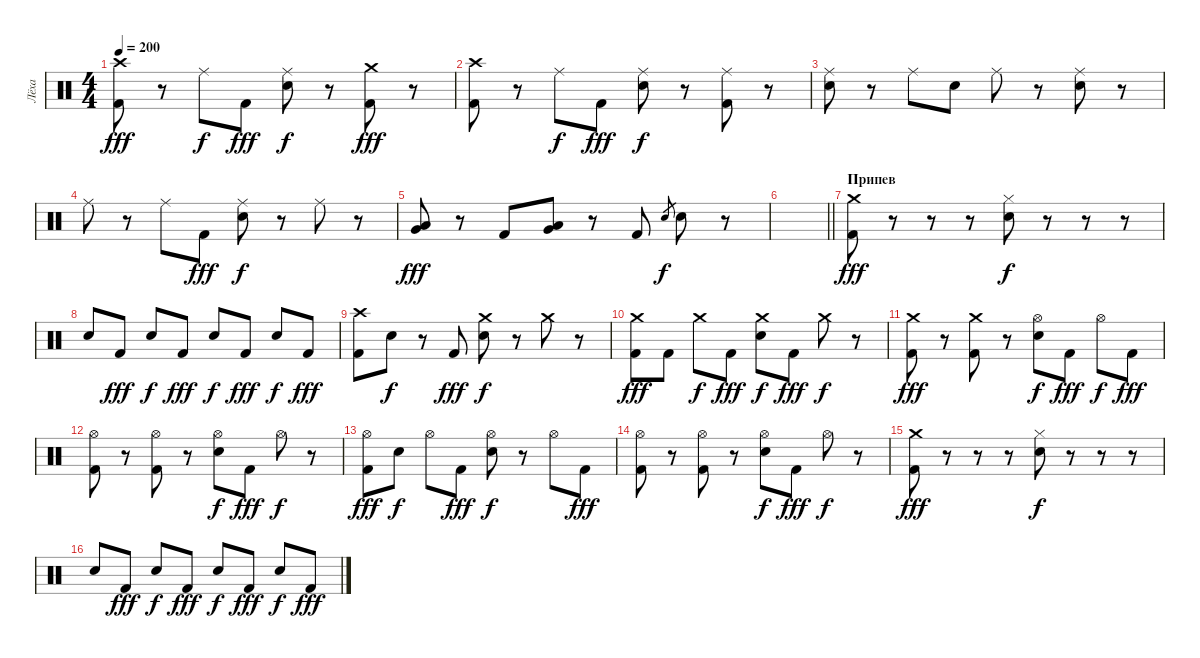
\track ("Лёха" "Лёха") {instrument percussion}
\staff {score}
\articulation defaults
\ts (4 4)
\tempo 200
\clef neutral
\ks c
("Crash high (hit)" "Kick (hit) 2").8{dy fff} r.8 "Ride (middle)".8{dy f} "Kick (hit) 2".8{dy fff} ("Ride (middle)" "Electric Snare (hit)").8{dy f} r.8 ("Crash medium (hit)" "Kick (hit) 2").8{dy fff} r.8 |
("Crash high (hit)" "Kick (hit) 2").8 r.8 "Ride (middle)".8{dy f} "Kick (hit) 2".8{dy fff} ("Ride (middle)" "Electric Snare (hit)").8{dy f} r.8 ("Ride (middle)" "Kick (hit) 2").8 r.8 |
("Ride (middle)" "Electric Snare (hit)").8 r.8 "Ride (middle)".8 "Electric Snare (hit)".8 "Ride (middle)".8 r.8 ("Ride (middle)" "Electric Snare (hit)").8 r.8 |
"Ride (middle)".8 r.8 "Ride (middle)".8 "Kick (hit) 2".8{dy fff} ("Ride (middle)" "Electric Snare (hit)").8{dy f} r.8 "Ride (middle)".8 r.8 |
("Low Tom (hit)" "Very Low Tom (hit)").8{dy fff} r.8 "Kick (hit) 2".8 ("Low Tom (hit)" "Very Low Tom (hit)").8 r.8 "Kick (hit) 2".8 "Electric Snare (hit)".8{gr dy f} "Electric Snare (hit)".8 r.8 |
\barLineRight lightlight
|
\section ("" "Припев")
("Crash medium (hit)" "Kick (hit) 2").8{dy fff} r.8 r.8 r.8 ("Hi-Hat (closed)" "Electric Snare (hit)").8{dy f} r.8 r.8 r.8 |
"Electric Snare (hit)".8 "Kick (hit) 2".8{dy fff} "Electric Snare (hit)".8{dy f} "Kick (hit) 2".8{dy fff} "Electric Snare (hit)".8{dy f} "Kick (hit) 2".8{dy fff} "Electric Snare (hit)".8{dy f} "Kick (hit) 2".8{dy fff} |
("Crash high (hit)" "Kick (hit) 2").8 "Electric Snare (hit)".8{dy f} r.8 "Kick (hit) 2".8{dy fff} ("Crash medium (hit)" "Electric Snare (hit)").8{dy f} r.8 "Crash medium (hit)".8 r.8 |
("Crash medium (hit)" "Kick (hit) 2").8{dy fff} "Kick (hit) 2".8 "Crash medium (hit)".8{dy f} "Kick (hit) 2".8{dy fff} ("Crash medium (hit)" "Electric Snare (hit)").8{dy f} "Kick (hit) 2".8{dy fff} "Crash medium (hit)".8{dy f} r.8 |
("Crash medium (hit)" "Kick (hit) 2").8{dy fff} r.8 ("Crash medium (hit)" "Kick (hit) 2").8 r.8 ("Hi-Hat (open)" "Electric Snare (hit)").8{dy f} "Kick (hit) 2".8{dy fff} "Hi-Hat (open)".8{dy f} "Kick (hit) 2".8{dy fff} |
("Hi-Hat (open)" "Kick (hit) 2").8 r.8 ("Hi-Hat (open)" "Kick (hit) 2").8 r.8 ("Hi-Hat (open)" "Electric Snare (hit)").8{dy f} "Kick (hit) 2".8{dy fff} "Hi-Hat (open)".8{dy f} r.8 |
("Hi-Hat (open)" "Kick (hit) 2").8{dy fff} "Electric Snare (hit)".8{dy f} "Hi-Hat (open)".8 "Kick (hit) 2".8{dy fff} ("Hi-Hat (open)" "Electric Snare (hit)").8{dy f} r.8 "Hi-Hat (open)".8 "Kick (hit) 2".8{dy fff} |
("Hi-Hat (open)" "Kick (hit) 2").8 r.8 ("Hi-Hat (open)" "Kick (hit) 2").8 r.8 ("Hi-Hat (open)" "Electric Snare (hit)").8{dy f} "Kick (hit) 2".8{dy fff} "Hi-Hat (open)".8{dy f} r.8 |
("Crash medium (hit)" "Kick (hit) 2").8{dy fff} r.8 r.8 r.8 ("Hi-Hat (closed)" "Electric Snare (hit)").8{dy f} r.8 r.8 r.8 |
"Electric Snare (hit)".8 "Kick (hit) 2".8{dy fff} "Electric Snare (hit)".8{dy f} "Kick (hit) 2".8{dy fff} "Electric Snare (hit)".8{dy f} "Kick (hit) 2".8{dy fff} "Electric Snare (hit)".8{dy f} "Kick (hit) 2".8{dy fff}
